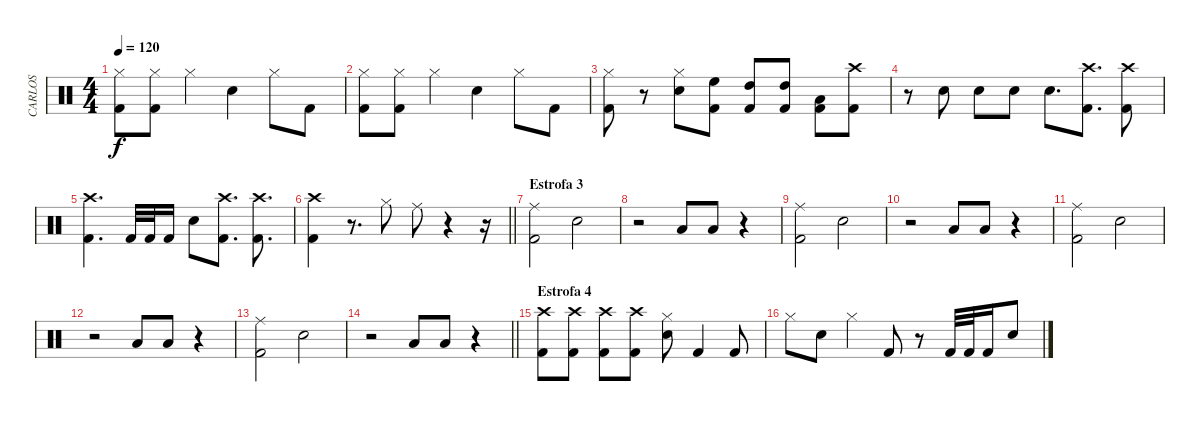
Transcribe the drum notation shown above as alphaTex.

\track ("CARLOS" "CARLOS") {instrument percussion}
\staff {score}
\articulation defaults
\ts (4 4)
\tempo 120
\clef neutral
\ks c
("Kick (hit) 2" "Hi-Hat (closed)").8{dy f} ("Kick (hit) 2" "Hi-Hat (closed)").8 "Hi-Hat (closed)".4 "Electric Snare (hit)".4 "Hi-Hat (closed)".8 "Kick (hit) 2".8 |
("Kick (hit) 2" "Hi-Hat (closed)").8 ("Kick (hit) 2" "Hi-Hat (closed)").8 "Hi-Hat (closed)".4 "Electric Snare (hit)".4 "Hi-Hat (closed)".8 "Kick (hit) 2".8 |
("Kick (hit) 2" "Hi-Hat (closed)").8 r.8 ("Hi-Hat (closed)" "Electric Snare (hit)").8 ("High Floor Tom (hit)" "Kick (hit) 2").8 ("Kick (hit) 2" "High Tom (hit)").8 ("Kick (hit) 2" "High Tom (hit)").8 ("Low Tom (hit)" "Kick (hit) 2").8 ("Kick (hit) 2" "Crash high (hit)").8 |
r.8 "Electric Snare (hit)".8 "Electric Snare (hit)".8 "Electric Snare (hit)".8 "Electric Snare (hit)".8{d} ("Crash high (hit)" "Kick (hit) 2").8{d} ("Crash high (hit)" "Kick (hit) 2").8 |
("Kick (hit) 2" "Crash high (hit)").4{d} "Kick (hit) 2".32 "Kick (hit) 2".32 "Kick (hit) 2".16 "Electric Snare (hit)".8 ("Crash high (hit)" "Kick (hit) 2").8{d} ("Kick (hit) 2" "Crash high (hit)").8{d} |
\barLineRight lightlight
("Crash high (hit)" "Kick (hit) 2").4 r.8{d} "Hi-Hat (closed)".8 "Ride (middle)".8 r.4 r.16 |
\section ("" "Estrofa 3")
("Ride (middle)" "Kick (hit) 2").2 "Electric Snare (hit)".2 |
r.2 "Low Tom (hit)".8 "Low Tom (hit)".8 r.4 |
("Ride (middle)" "Kick (hit) 2").2 "Electric Snare (hit)".2 |
r.2 "Low Tom (hit)".8 "Low Tom (hit)".8 r.4 |
("Ride (middle)" "Kick (hit) 2").2 "Electric Snare (hit)".2 |
r.2 "Low Tom (hit)".8 "Low Tom (hit)".8 r.4 |
("Ride (middle)" "Kick (hit) 2").2 "Electric Snare (hit)".2 |
\barLineRight lightlight
r.2 "Low Tom (hit)".8 "Low Tom (hit)".8 r.4 |
\section ("" "Estrofa 4")
("Crash high (hit)" "Kick (hit) 2").8 ("Crash high (hit)" "Kick (hit) 2").8 ("Crash high (hit)" "Kick (hit) 2").8 ("Crash high (hit)" "Kick (hit) 2").8 ("Electric Snare (hit)" "Hi-Hat (closed)").8 "Kick (hit) 2".4 "Kick (hit) 2".8 |
"Hi-Hat (closed)".8 "Electric Snare (hit)".8 "Hi-Hat (closed)".4 "Kick (hit) 2".8 r.8 "Kick (hit) 2".32 "Kick (hit) 2".32 "Kick (hit) 2".16 "Electric Snare (hit)".8
